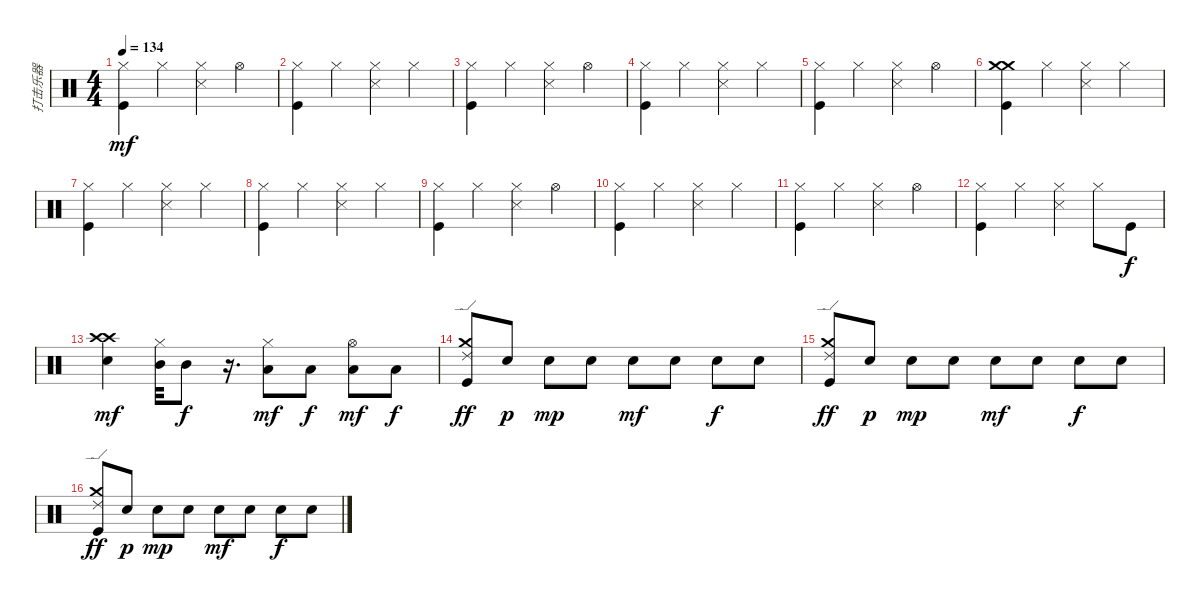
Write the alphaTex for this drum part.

\track ("打击乐器" "打击乐器") {instrument percussion}
\staff {score}
\articulation defaults
\ts (4 4)
\tempo 134
\clef neutral
\ks c
("Hi-Hat (closed)" "Kick (hit)").4{dy mf} "Hi-Hat (closed)".4 ("Hi-Hat (closed)" "Snare (side stick) 3").4 "Hi-Hat (open)".4 |
("Hi-Hat (closed)" "Kick (hit)").4 "Hi-Hat (closed)".4 ("Hi-Hat (closed)" "Snare (side stick) 3").4 "Hi-Hat (closed)".4 |
("Hi-Hat (closed)" "Kick (hit)").4 "Hi-Hat (closed)".4 ("Hi-Hat (closed)" "Snare (side stick) 3").4 "Hi-Hat (open)".4 |
("Hi-Hat (closed)" "Kick (hit)").4 "Hi-Hat (closed)".4 ("Hi-Hat (closed)" "Snare (side stick) 3").4 "Hi-Hat (closed)".4 |
("Hi-Hat (closed)" "Kick (hit)").4 "Hi-Hat (closed)".4 ("Hi-Hat (closed)" "Snare (side stick) 3").4 "Hi-Hat (open)".4 |
("Crash medium (hit)" "Crash medium (hit)" "Kick (hit)").4 "Hi-Hat (closed)".4 ("Hi-Hat (closed)" "Snare (side stick) 3").4 "Hi-Hat (closed)".4 |
("Hi-Hat (closed)" "Kick (hit)").4 "Hi-Hat (closed)".4 ("Hi-Hat (closed)" "Snare (side stick) 3").4 "Hi-Hat (closed)".4 |
("Hi-Hat (closed)" "Kick (hit)").4 "Hi-Hat (closed)".4 ("Hi-Hat (closed)" "Snare (side stick) 3").4 "Hi-Hat (closed)".4 |
("Hi-Hat (closed)" "Kick (hit)").4 "Hi-Hat (closed)".4 ("Hi-Hat (closed)" "Snare (side stick) 3").4 "Hi-Hat (open)".4 |
("Hi-Hat (closed)" "Kick (hit)").4 "Hi-Hat (closed)".4 ("Hi-Hat (closed)" "Snare (side stick) 3").4 "Hi-Hat (closed)".4 |
("Hi-Hat (closed)" "Kick (hit)").4 "Hi-Hat (closed)".4 ("Hi-Hat (closed)" "Snare (side stick) 3").4 "Hi-Hat (open)".4 |
("Hi-Hat (closed)" "Kick (hit)").4 "Hi-Hat (closed)".4 ("Hi-Hat (closed)" "Snare (side stick) 3").4 "Hi-Hat (closed)".8 "Kick (hit)".8{dy f} |
("Crash high (hit)" "Crash high (hit)" "Electric Snare (hit)").4{dy mf} ("Hi-Hat (closed)" "Mid Tom (hit)").32 "Mid Tom (hit)".8{dy f} r.16{d} ("Hi-Hat (closed)" "Low Tom (hit)").8{dy mf} "Low Tom (hit)".8{dy f} ("Hi-Hat (open)" "Low Tom (hit)").8{dy mf} "Low Tom (hit)".8{dy f} |
("Crash medium (hit)" "Ride (edge) 2" "Kick (hit)").8{dy ff} "Electric Snare (hit)".8{dy p} "Electric Snare (hit)".8{dy mp} "Electric Snare (hit)".8 "Electric Snare (hit)".8{dy mf} "Electric Snare (hit)".8 "Electric Snare (hit)".8{dy f} "Electric Snare (hit)".8 |
("Crash medium (hit)" "Ride (edge) 2" "Kick (hit)").8{dy ff} "Electric Snare (hit)".8{dy p} "Electric Snare (hit)".8{dy mp} "Electric Snare (hit)".8 "Electric Snare (hit)".8{dy mf} "Electric Snare (hit)".8 "Electric Snare (hit)".8{dy f} "Electric Snare (hit)".8 |
("Crash medium (hit)" "Ride (edge) 2" "Kick (hit)").8{dy ff} "Electric Snare (hit)".8{dy p} "Electric Snare (hit)".8{dy mp} "Electric Snare (hit)".8 "Electric Snare (hit)".8{dy mf} "Electric Snare (hit)".8 "Electric Snare (hit)".8{dy f} "Electric Snare (hit)".8
